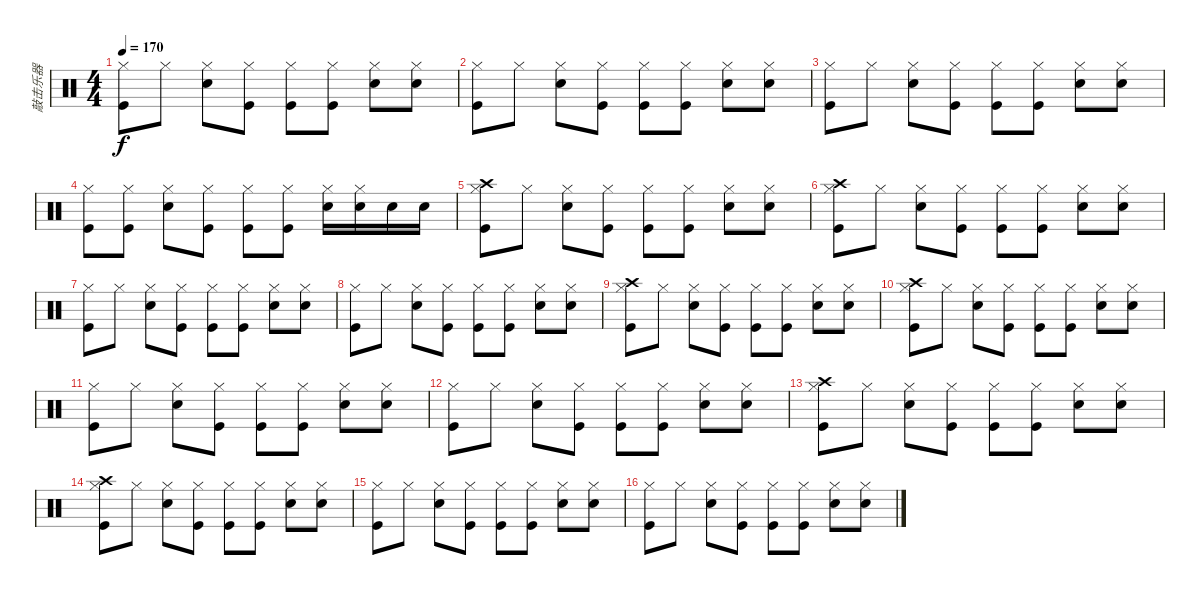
\track ("敲击乐器" "敲击乐器") {instrument percussion}
\staff {score}
\articulation defaults
\ts (4 4)
\tempo 170
\clef neutral
\ks c
("Hi-Hat (closed)" "Kick (hit)").8{dy f} "Hi-Hat (closed)".8 ("Hi-Hat (closed)" "Snare (hit) 2").8 ("Hi-Hat (closed)" "Kick (hit)").8 ("Hi-Hat (closed)" "Kick (hit)").8 ("Hi-Hat (closed)" "Kick (hit)").8 ("Hi-Hat (closed)" "Snare (hit) 2").8 ("Hi-Hat (closed)" "Snare (hit) 2").8 |
("Hi-Hat (closed)" "Kick (hit)").8 "Hi-Hat (closed)".8 ("Hi-Hat (closed)" "Snare (hit) 2").8 ("Hi-Hat (closed)" "Kick (hit)").8 ("Hi-Hat (closed)" "Kick (hit)").8 ("Hi-Hat (closed)" "Kick (hit)").8 ("Hi-Hat (closed)" "Snare (hit) 2").8 ("Hi-Hat (closed)" "Snare (hit) 2").8 |
("Hi-Hat (closed)" "Kick (hit)").8 "Hi-Hat (closed)".8 ("Hi-Hat (closed)" "Snare (hit) 2").8 ("Hi-Hat (closed)" "Kick (hit)").8 ("Hi-Hat (closed)" "Kick (hit)").8 ("Hi-Hat (closed)" "Kick (hit)").8 ("Hi-Hat (closed)" "Snare (hit) 2").8 ("Hi-Hat (closed)" "Snare (hit) 2").8 |
("Hi-Hat (closed)" "Kick (hit)").8 ("Hi-Hat (closed)" "Kick (hit)").8 ("Hi-Hat (closed)" "Snare (hit) 2").8 ("Hi-Hat (closed)" "Kick (hit)").8 ("Hi-Hat (closed)" "Kick (hit)").8 ("Hi-Hat (closed)" "Kick (hit)").8 ("Hi-Hat (closed)" "Snare (hit) 2").16 ("Hi-Hat (closed)" "Snare (hit) 2").16 "Snare (hit) 2".16 "Snare (hit) 2".16 |
("Crash high (hit)" "Hi-Hat (closed)" "Kick (hit)").8 "Hi-Hat (closed)".8 ("Hi-Hat (closed)" "Snare (hit) 2").8 ("Hi-Hat (closed)" "Kick (hit)").8 ("Hi-Hat (closed)" "Kick (hit)").8 ("Hi-Hat (closed)" "Kick (hit)").8 ("Hi-Hat (closed)" "Snare (hit) 2").8 ("Hi-Hat (closed)" "Snare (hit) 2").8 |
("Crash high (hit)" "Hi-Hat (closed)" "Kick (hit)").8 "Hi-Hat (closed)".8 ("Hi-Hat (closed)" "Snare (hit) 2").8 ("Hi-Hat (closed)" "Kick (hit)").8 ("Hi-Hat (closed)" "Kick (hit)").8 ("Hi-Hat (closed)" "Kick (hit)").8 ("Hi-Hat (closed)" "Snare (hit) 2").8 ("Hi-Hat (closed)" "Snare (hit) 2").8 |
("Hi-Hat (closed)" "Kick (hit)").8 "Hi-Hat (closed)".8 ("Hi-Hat (closed)" "Snare (hit) 2").8 ("Hi-Hat (closed)" "Kick (hit)").8 ("Hi-Hat (closed)" "Kick (hit)").8 ("Hi-Hat (closed)" "Kick (hit)").8 ("Hi-Hat (closed)" "Snare (hit) 2").8 ("Hi-Hat (closed)" "Snare (hit) 2").8 |
("Hi-Hat (closed)" "Kick (hit)").8 "Hi-Hat (closed)".8 ("Hi-Hat (closed)" "Snare (hit) 2").8 ("Hi-Hat (closed)" "Kick (hit)").8 ("Hi-Hat (closed)" "Kick (hit)").8 ("Hi-Hat (closed)" "Kick (hit)").8 ("Hi-Hat (closed)" "Snare (hit) 2").8 ("Hi-Hat (closed)" "Snare (hit) 2").8 |
("Crash high (hit)" "Hi-Hat (closed)" "Kick (hit)").8 "Hi-Hat (closed)".8 ("Hi-Hat (closed)" "Snare (hit) 2").8 ("Hi-Hat (closed)" "Kick (hit)").8 ("Hi-Hat (closed)" "Kick (hit)").8 ("Hi-Hat (closed)" "Kick (hit)").8 ("Hi-Hat (closed)" "Snare (hit) 2").8 ("Hi-Hat (closed)" "Snare (hit) 2").8 |
("Crash high (hit)" "Hi-Hat (closed)" "Kick (hit)").8 "Hi-Hat (closed)".8 ("Hi-Hat (closed)" "Snare (hit) 2").8 ("Hi-Hat (closed)" "Kick (hit)").8 ("Hi-Hat (closed)" "Kick (hit)").8 ("Hi-Hat (closed)" "Kick (hit)").8 ("Hi-Hat (closed)" "Snare (hit) 2").8 ("Hi-Hat (closed)" "Snare (hit) 2").8 |
("Hi-Hat (closed)" "Kick (hit)").8 "Hi-Hat (closed)".8 ("Hi-Hat (closed)" "Snare (hit) 2").8 ("Hi-Hat (closed)" "Kick (hit)").8 ("Hi-Hat (closed)" "Kick (hit)").8 ("Hi-Hat (closed)" "Kick (hit)").8 ("Hi-Hat (closed)" "Snare (hit) 2").8 ("Hi-Hat (closed)" "Snare (hit) 2").8 |
("Hi-Hat (closed)" "Kick (hit)").8 "Hi-Hat (closed)".8 ("Hi-Hat (closed)" "Snare (hit) 2").8 ("Hi-Hat (closed)" "Kick (hit)").8 ("Hi-Hat (closed)" "Kick (hit)").8 ("Hi-Hat (closed)" "Kick (hit)").8 ("Hi-Hat (closed)" "Snare (hit) 2").8 ("Hi-Hat (closed)" "Snare (hit) 2").8 |
("Crash high (hit)" "Hi-Hat (closed)" "Kick (hit)").8 "Hi-Hat (closed)".8 ("Hi-Hat (closed)" "Snare (hit) 2").8 ("Hi-Hat (closed)" "Kick (hit)").8 ("Hi-Hat (closed)" "Kick (hit)").8 ("Hi-Hat (closed)" "Kick (hit)").8 ("Hi-Hat (closed)" "Snare (hit) 2").8 ("Hi-Hat (closed)" "Snare (hit) 2").8 |
("Crash high (hit)" "Hi-Hat (closed)" "Kick (hit)").8 "Hi-Hat (closed)".8 ("Hi-Hat (closed)" "Snare (hit) 2").8 ("Hi-Hat (closed)" "Kick (hit)").8 ("Hi-Hat (closed)" "Kick (hit)").8 ("Hi-Hat (closed)" "Kick (hit)").8 ("Hi-Hat (closed)" "Snare (hit) 2").8 ("Hi-Hat (closed)" "Snare (hit) 2").8 |
("Hi-Hat (closed)" "Kick (hit)").8 "Hi-Hat (closed)".8 ("Hi-Hat (closed)" "Snare (hit) 2").8 ("Hi-Hat (closed)" "Kick (hit)").8 ("Hi-Hat (closed)" "Kick (hit)").8 ("Hi-Hat (closed)" "Kick (hit)").8 ("Hi-Hat (closed)" "Snare (hit) 2").8 ("Hi-Hat (closed)" "Snare (hit) 2").8 |
("Hi-Hat (closed)" "Kick (hit)").8 "Hi-Hat (closed)".8 ("Hi-Hat (closed)" "Snare (hit) 2").8 ("Hi-Hat (closed)" "Kick (hit)").8 ("Hi-Hat (closed)" "Kick (hit)").8 ("Hi-Hat (closed)" "Kick (hit)").8 ("Hi-Hat (closed)" "Snare (hit) 2").8 ("Hi-Hat (closed)" "Snare (hit) 2").8
